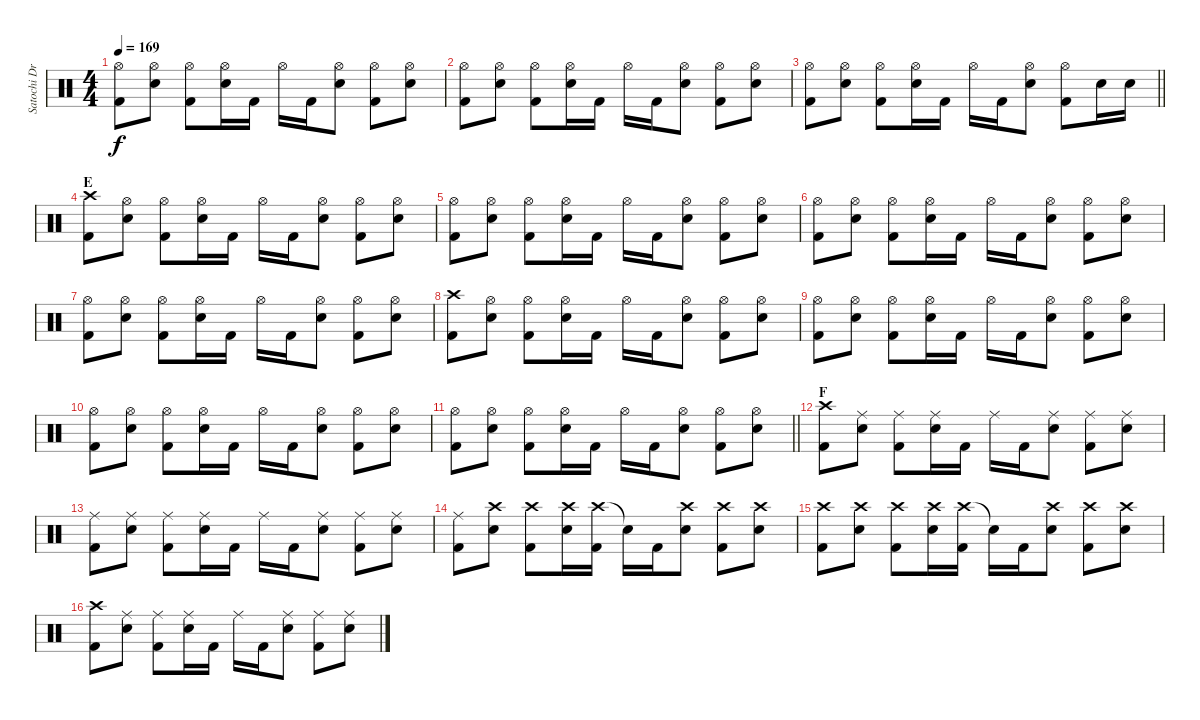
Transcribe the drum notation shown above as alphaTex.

\track ("Satochi Drums" "Satochi Dr") {instrument percussion}
\staff {score}
\articulation defaults
\ts (4 4)
\tempo 169
\clef neutral
\ks c
("Hi-Hat (open)" "Kick (hit) 2").8{dy f} ("Hi-Hat (open)" "Snare (hit) 2").8 ("Hi-Hat (open)" "Kick (hit) 2").8 ("Hi-Hat (open)" "Snare (hit) 2").16 "Kick (hit) 2".16 "Hi-Hat (open)".16 "Kick (hit) 2".16 ("Hi-Hat (open)" "Snare (hit) 2").8 ("Hi-Hat (open)" "Kick (hit) 2").8 ("Hi-Hat (open)" "Snare (hit) 2").8 |
("Hi-Hat (open)" "Kick (hit) 2").8 ("Hi-Hat (open)" "Snare (hit) 2").8 ("Hi-Hat (open)" "Kick (hit) 2").8 ("Hi-Hat (open)" "Snare (hit) 2").16 "Kick (hit) 2".16 "Hi-Hat (open)".16 "Kick (hit) 2".16 ("Hi-Hat (open)" "Snare (hit) 2").8 ("Hi-Hat (open)" "Kick (hit) 2").8 ("Hi-Hat (open)" "Snare (hit) 2").8 |
\barLineRight lightlight
("Hi-Hat (open)" "Kick (hit) 2").8 ("Hi-Hat (open)" "Snare (hit) 2").8 ("Hi-Hat (open)" "Kick (hit) 2").8 ("Hi-Hat (open)" "Snare (hit) 2").16 "Kick (hit) 2".16 "Hi-Hat (open)".16 "Kick (hit) 2".16 ("Hi-Hat (open)" "Snare (hit) 2").8 ("Hi-Hat (open)" "Kick (hit) 2").8 "Snare (hit) 2".16 "Snare (hit) 2".16 |
\section ("" "E")
("Crash high (hit)" "Kick (hit) 2").8 ("Hi-Hat (open)" "Snare (hit) 2").8 ("Hi-Hat (open)" "Kick (hit) 2").8 ("Hi-Hat (open)" "Snare (hit) 2").16 "Kick (hit) 2".16 "Hi-Hat (open)".16 "Kick (hit) 2".16 ("Hi-Hat (open)" "Snare (hit) 2").8 ("Hi-Hat (open)" "Kick (hit) 2").8 ("Hi-Hat (open)" "Snare (hit) 2").8 |
("Hi-Hat (open)" "Kick (hit) 2").8 ("Hi-Hat (open)" "Snare (hit) 2").8 ("Hi-Hat (open)" "Kick (hit) 2").8 ("Hi-Hat (open)" "Snare (hit) 2").16 "Kick (hit) 2".16 "Hi-Hat (open)".16 "Kick (hit) 2".16 ("Hi-Hat (open)" "Snare (hit) 2").8 ("Hi-Hat (open)" "Kick (hit) 2").8 ("Hi-Hat (open)" "Snare (hit) 2").8 |
("Hi-Hat (open)" "Kick (hit) 2").8 ("Hi-Hat (open)" "Snare (hit) 2").8 ("Hi-Hat (open)" "Kick (hit) 2").8 ("Hi-Hat (open)" "Snare (hit) 2").16 "Kick (hit) 2".16 "Hi-Hat (open)".16 "Kick (hit) 2".16 ("Hi-Hat (open)" "Snare (hit) 2").8 ("Hi-Hat (open)" "Kick (hit) 2").8 ("Hi-Hat (open)" "Snare (hit) 2").8 |
("Hi-Hat (open)" "Kick (hit) 2").8 ("Hi-Hat (open)" "Snare (hit) 2").8 ("Hi-Hat (open)" "Kick (hit) 2").8 ("Hi-Hat (open)" "Snare (hit) 2").16 "Kick (hit) 2".16 "Hi-Hat (open)".16 "Kick (hit) 2".16 ("Hi-Hat (open)" "Snare (hit) 2").8 ("Hi-Hat (open)" "Kick (hit) 2").8 ("Hi-Hat (open)" "Snare (hit) 2").8 |
("Crash high (hit)" "Kick (hit) 2").8 ("Hi-Hat (open)" "Snare (hit) 2").8 ("Hi-Hat (open)" "Kick (hit) 2").8 ("Hi-Hat (open)" "Snare (hit) 2").16 "Kick (hit) 2".16 "Hi-Hat (open)".16 "Kick (hit) 2".16 ("Hi-Hat (open)" "Snare (hit) 2").8 ("Hi-Hat (open)" "Kick (hit) 2").8 ("Hi-Hat (open)" "Snare (hit) 2").8 |
("Hi-Hat (open)" "Kick (hit) 2").8 ("Hi-Hat (open)" "Snare (hit) 2").8 ("Hi-Hat (open)" "Kick (hit) 2").8 ("Hi-Hat (open)" "Snare (hit) 2").16 "Kick (hit) 2".16 "Hi-Hat (open)".16 "Kick (hit) 2".16 ("Hi-Hat (open)" "Snare (hit) 2").8 ("Hi-Hat (open)" "Kick (hit) 2").8 ("Hi-Hat (open)" "Snare (hit) 2").8 |
("Hi-Hat (open)" "Kick (hit) 2").8 ("Hi-Hat (open)" "Snare (hit) 2").8 ("Hi-Hat (open)" "Kick (hit) 2").8 ("Hi-Hat (open)" "Snare (hit) 2").16 "Kick (hit) 2".16 "Hi-Hat (open)".16 "Kick (hit) 2".16 ("Hi-Hat (open)" "Snare (hit) 2").8 ("Hi-Hat (open)" "Kick (hit) 2").8 ("Hi-Hat (open)" "Snare (hit) 2").8 |
\barLineRight lightlight
("Hi-Hat (open)" "Kick (hit) 2").8 ("Hi-Hat (open)" "Snare (hit) 2").8 ("Hi-Hat (open)" "Kick (hit) 2").8 ("Hi-Hat (open)" "Snare (hit) 2").16 "Kick (hit) 2".16 "Hi-Hat (open)".16 "Kick (hit) 2".16 ("Hi-Hat (open)" "Snare (hit) 2").8 ("Hi-Hat (open)" "Kick (hit) 2").8 ("Hi-Hat (open)" "Snare (hit) 2").8 |
\section ("" "F")
("Crash high (hit)" "Kick (hit) 2").8 ("Ride (middle)" "Snare (hit) 2").8 ("Ride (middle)" "Kick (hit) 2").8 ("Ride (middle)" "Snare (hit) 2").16 "Kick (hit) 2".16 "Ride (middle)".16 "Kick (hit) 2".16 ("Ride (middle)" "Snare (hit) 2").8 ("Ride (middle)" "Kick (hit) 2").8 ("Ride (middle)" "Snare (hit) 2").8 |
("Ride (middle)" "Kick (hit) 2").8 ("Ride (middle)" "Snare (hit) 2").8 ("Ride (middle)" "Kick (hit) 2").8 ("Ride (middle)" "Snare (hit) 2").16 "Kick (hit) 2".16 "Ride (middle)".16 "Kick (hit) 2".16 ("Ride (middle)" "Snare (hit) 2").8 ("Ride (middle)" "Kick (hit) 2").8 ("Ride (middle)" "Snare (hit) 2").8 |
("Ride (middle)" "Kick (hit) 2").8 ("Crash high (hit)" "Snare (hit) 2").8 ("Crash high (hit)" "Kick (hit) 2").8 ("Crash high (hit)" "Snare (hit) 2").16 ("Crash high (hit)" "Kick (hit) 2").16 "Snare (hit)"{t}.16 "Kick (hit) 2".16 ("Crash high (hit)" "Snare (hit) 2").8 ("Crash high (hit)" "Kick (hit) 2").8 ("Crash high (hit)" "Snare (hit) 2").8 |
("Crash high (hit)" "Kick (hit) 2").8 ("Crash high (hit)" "Snare (hit) 2").8 ("Crash high (hit)" "Kick (hit) 2").8 ("Crash high (hit)" "Snare (hit) 2").16 ("Crash high (hit)" "Kick (hit) 2").16 "Snare (hit)"{t}.16 "Kick (hit) 2".16 ("Crash high (hit)" "Snare (hit) 2").8 ("Crash high (hit)" "Kick (hit) 2").8 ("Crash high (hit)" "Snare (hit) 2").8 |
("Crash high (hit)" "Kick (hit) 2").8 ("Ride (middle)" "Snare (hit) 2").8 ("Ride (middle)" "Kick (hit) 2").8 ("Ride (middle)" "Snare (hit) 2").16 "Kick (hit) 2".16 "Ride (middle)".16 "Kick (hit) 2".16 ("Ride (middle)" "Snare (hit) 2").8 ("Ride (middle)" "Kick (hit) 2").8 ("Ride (middle)" "Snare (hit) 2").8
